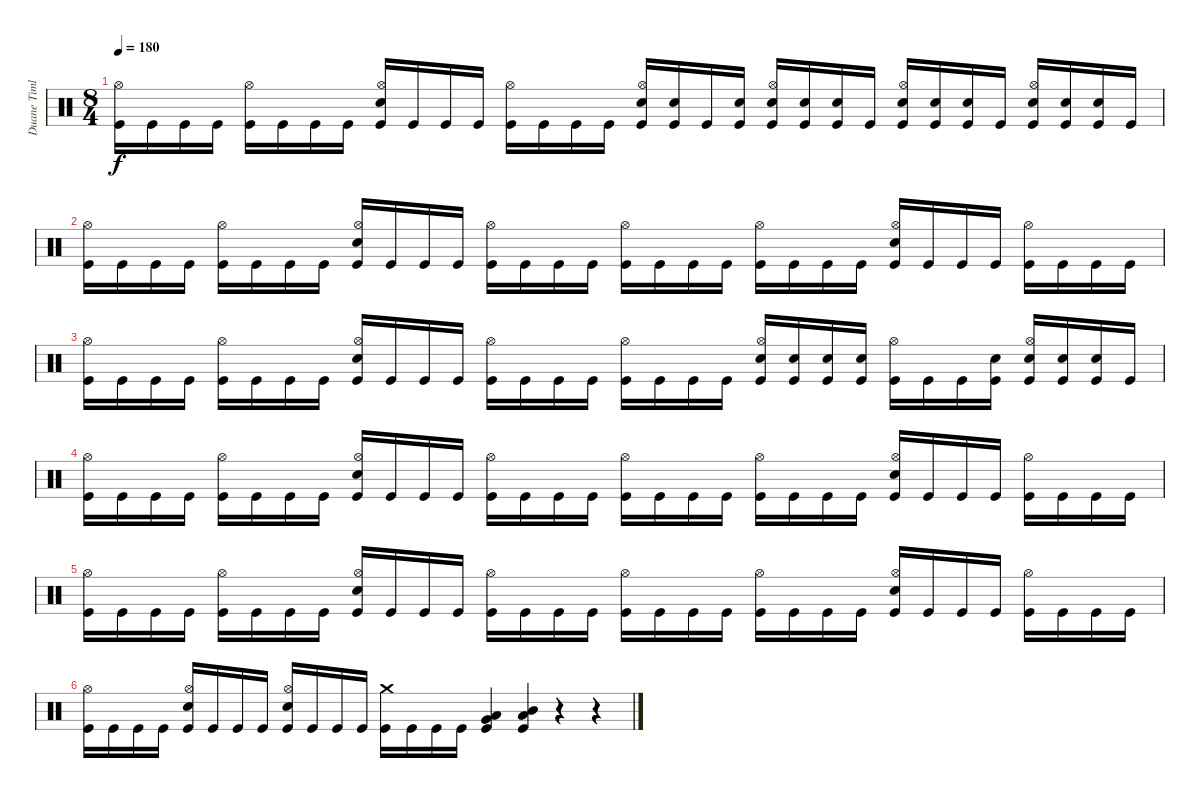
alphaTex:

\track ("Duane Timlin" "Duane Timl") {instrument percussion}
\staff {score}
\articulation defaults
\ts (8 4)
\tempo 180
\clef neutral
\ks c
("Kick (hit)" "Hi-Hat (open)").16{dy f} "Kick (hit)".16 "Kick (hit)".16 "Kick (hit)".16 ("Kick (hit)" "Hi-Hat (open)").16 "Kick (hit)".16 "Kick (hit)".16 "Kick (hit)".16 ("Kick (hit)" "Hi-Hat (open)" "Snare (hit) 2").16 "Kick (hit)".16 "Kick (hit)".16 "Kick (hit)".16 ("Kick (hit)" "Hi-Hat (open)").16 "Kick (hit)".16 "Kick (hit)".16 "Kick (hit)".16 ("Kick (hit)" "Hi-Hat (open)" "Snare (hit) 2").16 ("Kick (hit)" "Snare (hit) 2").16 "Kick (hit)".16 ("Kick (hit)" "Snare (hit) 2").16 ("Kick (hit)" "Hi-Hat (open)" "Snare (hit) 2").16 ("Kick (hit)" "Snare (hit) 2").16 ("Kick (hit)" "Snare (hit) 2").16 "Kick (hit)".16 ("Kick (hit)" "Hi-Hat (open)" "Snare (hit) 2").16 ("Kick (hit)" "Snare (hit) 2").16 ("Kick (hit)" "Snare (hit) 2").16 "Kick (hit)".16 ("Kick (hit)" "Hi-Hat (open)" "Snare (hit) 2").16 ("Kick (hit)" "Snare (hit) 2").16 ("Kick (hit)" "Snare (hit) 2").16 "Kick (hit)".16 |
("Kick (hit)" "Hi-Hat (open)").16 "Kick (hit)".16 "Kick (hit)".16 "Kick (hit)".16 ("Kick (hit)" "Hi-Hat (open)").16 "Kick (hit)".16 "Kick (hit)".16 "Kick (hit)".16 ("Kick (hit)" "Hi-Hat (open)" "Snare (hit) 2").16 "Kick (hit)".16 "Kick (hit)".16 "Kick (hit)".16 ("Kick (hit)" "Hi-Hat (open)").16 "Kick (hit)".16 "Kick (hit)".16 "Kick (hit)".16 ("Kick (hit)" "Hi-Hat (open)").16 "Kick (hit)".16 "Kick (hit)".16 "Kick (hit)".16 ("Kick (hit)" "Hi-Hat (open)").16 "Kick (hit)".16 "Kick (hit)".16 "Kick (hit)".16 ("Kick (hit)" "Hi-Hat (open)" "Snare (hit) 2").16 "Kick (hit)".16 "Kick (hit)".16 "Kick (hit)".16 ("Kick (hit)" "Hi-Hat (open)").16 "Kick (hit)".16 "Kick (hit)".16 "Kick (hit)".16 |
("Kick (hit)" "Hi-Hat (open)").16 "Kick (hit)".16 "Kick (hit)".16 "Kick (hit)".16 ("Kick (hit)" "Hi-Hat (open)").16 "Kick (hit)".16 "Kick (hit)".16 "Kick (hit)".16 ("Kick (hit)" "Hi-Hat (open)" "Snare (hit) 2").16 "Kick (hit)".16 "Kick (hit)".16 "Kick (hit)".16 ("Kick (hit)" "Hi-Hat (open)").16 "Kick (hit)".16 "Kick (hit)".16 "Kick (hit)".16 ("Kick (hit)" "Hi-Hat (open)").16 "Kick (hit)".16 "Kick (hit)".16 "Kick (hit)".16 ("Kick (hit)" "Snare (hit) 2" "Hi-Hat (open)").16 ("Kick (hit)" "Snare (hit) 2").16 ("Kick (hit)" "Snare (hit) 2").16 ("Kick (hit)" "Snare (hit) 2").16 ("Kick (hit)" "Hi-Hat (open)").16 "Kick (hit)".16 "Kick (hit)".16 ("Kick (hit)" "Snare (hit) 2").16 ("Kick (hit)" "Snare (hit) 2" "Hi-Hat (open)").16 ("Kick (hit)" "Snare (hit) 2").16 ("Kick (hit)" "Snare (hit) 2").16 "Kick (hit)".16 |
("Kick (hit)" "Hi-Hat (open)").16 "Kick (hit)".16 "Kick (hit)".16 "Kick (hit)".16 ("Kick (hit)" "Hi-Hat (open)").16 "Kick (hit)".16 "Kick (hit)".16 "Kick (hit)".16 ("Kick (hit)" "Hi-Hat (open)" "Snare (hit) 2").16 "Kick (hit)".16 "Kick (hit)".16 "Kick (hit)".16 ("Kick (hit)" "Hi-Hat (open)").16 "Kick (hit)".16 "Kick (hit)".16 "Kick (hit)".16 ("Kick (hit)" "Hi-Hat (open)").16 "Kick (hit)".16 "Kick (hit)".16 "Kick (hit)".16 ("Kick (hit)" "Hi-Hat (open)").16 "Kick (hit)".16 "Kick (hit)".16 "Kick (hit)".16 ("Kick (hit)" "Hi-Hat (open)" "Snare (hit) 2").16 "Kick (hit)".16 "Kick (hit)".16 "Kick (hit)".16 ("Kick (hit)" "Hi-Hat (open)").16 "Kick (hit)".16 "Kick (hit)".16 "Kick (hit)".16 |
("Kick (hit)" "Hi-Hat (open)").16 "Kick (hit)".16 "Kick (hit)".16 "Kick (hit)".16 ("Kick (hit)" "Hi-Hat (open)").16 "Kick (hit)".16 "Kick (hit)".16 "Kick (hit)".16 ("Kick (hit)" "Hi-Hat (open)" "Snare (hit) 2").16 "Kick (hit)".16 "Kick (hit)".16 "Kick (hit)".16 ("Kick (hit)" "Hi-Hat (open)").16 "Kick (hit)".16 "Kick (hit)".16 "Kick (hit)".16 ("Kick (hit)" "Hi-Hat (open)").16 "Kick (hit)".16 "Kick (hit)".16 "Kick (hit)".16 ("Kick (hit)" "Hi-Hat (open)").16 "Kick (hit)".16 "Kick (hit)".16 "Kick (hit)".16 ("Kick (hit)" "Hi-Hat (open)" "Snare (hit) 2").16 "Kick (hit)".16 "Kick (hit)".16 "Kick (hit)".16 ("Kick (hit)" "Hi-Hat (open)").16 "Kick (hit)".16 "Kick (hit)".16 "Kick (hit)".16 |
("Kick (hit)" "Hi-Hat (open)").16 "Kick (hit)".16 "Kick (hit)".16 "Kick (hit)".16 ("Kick (hit)" "Snare (hit) 2" "Hi-Hat (open)").16 "Kick (hit)".16 "Kick (hit)".16 "Kick (hit)".16 ("Kick (hit)" "Snare (hit) 2" "Hi-Hat (open)").16 "Kick (hit)".16 "Kick (hit)".16 "Kick (hit)".16 ("Kick (hit)" "Crash medium (hit)").16 "Kick (hit)".16 "Kick (hit)".16 "Kick (hit)".16 ("Kick (hit)" "Low Tom (hit)" "Very Low Tom (hit)").4 ("Kick (hit)" "Mid Tom (hit)" "Low Tom (hit)").4 r.4 r.4
